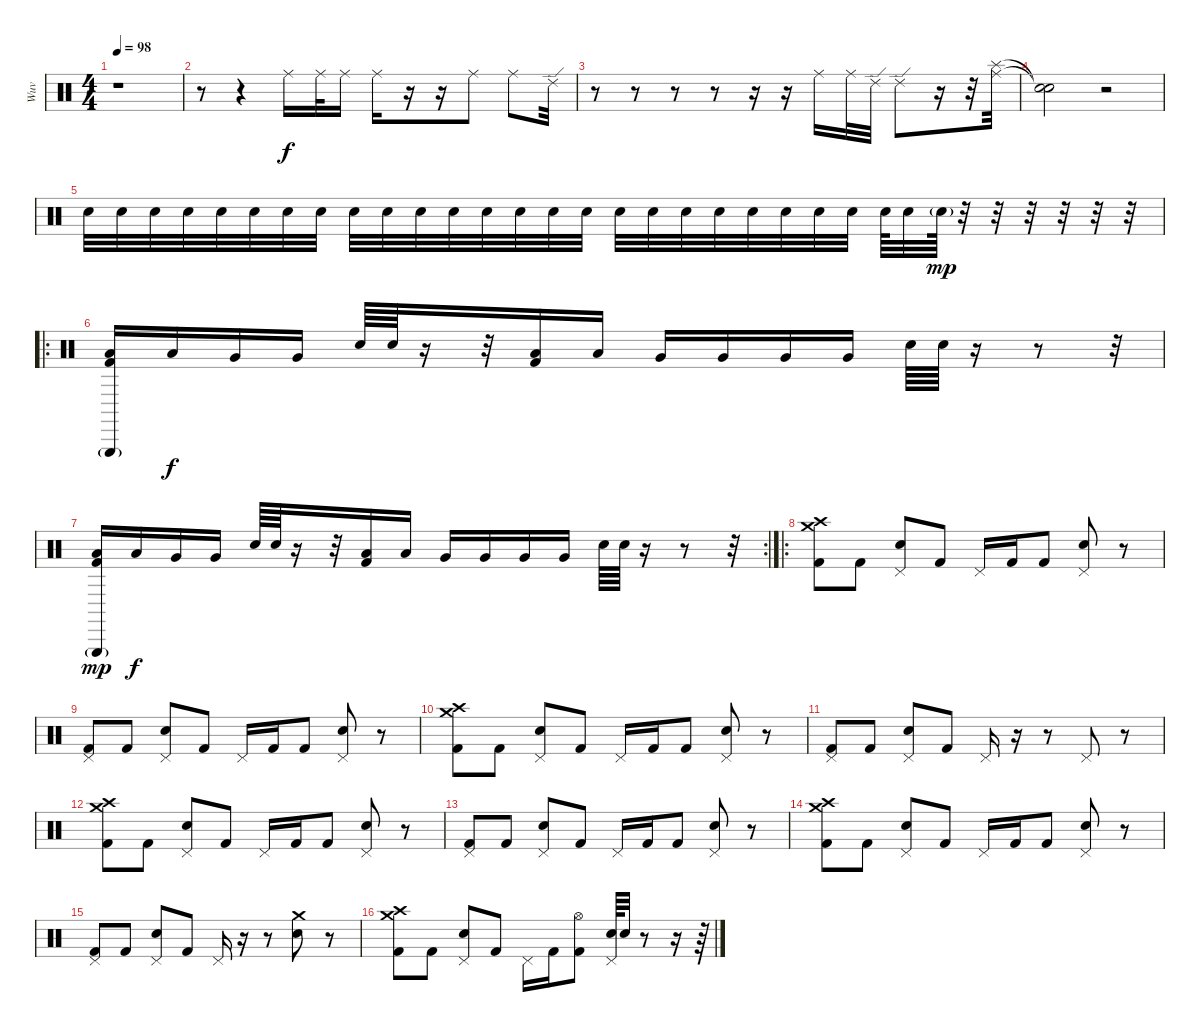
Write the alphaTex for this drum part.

\track ("Wuv" "Wuv") {instrument percussion}
\staff {score}
\articulation defaults
\ts (4 4)
\tempo 98
\clef neutral
\ks c
r.1{dy f} |
r.8{volume 5} r.4 "Ride (middle)".16 "Ride (middle)".32 "Ride (middle)".16 "Ride (middle)".16 r.16 r.16 "Ride (middle)".8 "Ride (middle)".8 "Ride (edge) 2".32 |
r.8 r.8 r.8 r.8 r.16 r.16 "Ride (middle)".16 "Ride (middle)".32 "Ride (edge) 2".32 "Ride (edge) 2".8 r.16 r.32 ("Ride (middle)" "Splash (hit)").32 |
("Snare (hit)"{t} "Snare (hit)"{t}).2 r.2{volume 2} |
"Snare (hit) 2".32{volume 8} "Snare (hit) 2".32 "Snare (hit) 2".32 "Snare (hit) 2".32 "Snare (hit) 2".32 "Snare (hit) 2".32 "Snare (hit) 2".32 "Snare (hit) 2".32 "Snare (hit) 2".32 "Snare (hit) 2".32 "Snare (hit) 2".32 "Snare (hit) 2".32 "Snare (hit) 2".32 "Snare (hit) 2".32 "Snare (hit) 2".32 "Snare (hit) 2".32 "Snare (hit) 2".32 "Snare (hit) 2".32 "Snare (hit) 2".32 "Snare (hit) 2".32 "Snare (hit) 2".32 "Snare (hit) 2".32 "Snare (hit) 2".32 "Snare (hit) 2".32 "Electric Snare (hit)".64{volume 10} "Electric Snare (hit)".32 "Electric Snare (hit)"{g}.64{dy mp} r.32 r.32 r.32 r.32 r.32 r.32 |
\ro
("Low Tom (hit)" "Triangle (hit)"{g} "Kick (hit) 2").16 "Low Tom (hit)".16{dy f} "Very Low Tom (hit)".16 "Very Low Tom (hit)".16 "Electric Snare (hit)".64 "Electric Snare (hit)".64 r.16 r.32 ("Low Tom (hit)" "Kick (hit) 2").16 "Low Tom (hit)".16 "Very Low Tom (hit)".16 "Very Low Tom (hit)".16 "Very Low Tom (hit)".16 "Very Low Tom (hit)".16 "Electric Snare (hit)".64 "Electric Snare (hit)".64 r.16 r.8 r.32 |
\rc 2
("Low Tom (hit)" "Triangle (hit)"{g} "Kick (hit) 2").16{dy mp} "Low Tom (hit)".16{dy f} "Very Low Tom (hit)".16 "Very Low Tom (hit)".16 "Electric Snare (hit)".64 "Electric Snare (hit)".64 r.16 r.32 ("Low Tom (hit)" "Kick (hit) 2").16 "Low Tom (hit)".16 "Very Low Tom (hit)".16 "Very Low Tom (hit)".16 "Very Low Tom (hit)".16 "Very Low Tom (hit)".16 "Electric Snare (hit)".64 "Electric Snare (hit)".64 r.16 r.8 r.32 |
\ro
("Crash high (hit)" "Crash medium (hit)" "Kick (hit) 2").8{volume 10} "Kick (hit) 2".8 ("Pedal Hi-Hat (hit)" "Electric Snare (hit)").8 "Kick (hit) 2".8 "Pedal Hi-Hat (hit)".16 "Kick (hit) 2".16 "Kick (hit) 2".8 ("Pedal Hi-Hat (hit)" "Electric Snare (hit)").8 r.8 |
("Pedal Hi-Hat (hit)" "Kick (hit) 2").8 "Kick (hit) 2".8 ("Pedal Hi-Hat (hit)" "Electric Snare (hit)").8 "Kick (hit) 2".8 "Pedal Hi-Hat (hit)".16 "Kick (hit) 2".16 "Kick (hit) 2".8 ("Pedal Hi-Hat (hit)" "Electric Snare (hit)").8 r.8 |
("Crash high (hit)" "Crash medium (hit)" "Kick (hit) 2").8 "Kick (hit) 2".8 ("Pedal Hi-Hat (hit)" "Electric Snare (hit)").8 "Kick (hit) 2".8 "Pedal Hi-Hat (hit)".16 "Kick (hit) 2".16 "Kick (hit) 2".8 ("Pedal Hi-Hat (hit)" "Electric Snare (hit)").8 r.8 |
("Pedal Hi-Hat (hit)" "Kick (hit) 2").8 "Kick (hit) 2".8 ("Pedal Hi-Hat (hit)" "Electric Snare (hit)").8 "Kick (hit) 2".8 "Pedal Hi-Hat (hit)".16 r.16 r.8 "Pedal Hi-Hat (hit)".8 r.8 |
("Crash high (hit)" "Crash medium (hit)" "Kick (hit) 2").8 "Kick (hit) 2".8 ("Pedal Hi-Hat (hit)" "Electric Snare (hit)").8 "Kick (hit) 2".8 "Pedal Hi-Hat (hit)".16 "Kick (hit) 2".16 "Kick (hit) 2".8 ("Pedal Hi-Hat (hit)" "Electric Snare (hit)").8 r.8 |
("Pedal Hi-Hat (hit)" "Kick (hit) 2").8 "Kick (hit) 2".8 ("Pedal Hi-Hat (hit)" "Electric Snare (hit)").8 "Kick (hit) 2".8 "Pedal Hi-Hat (hit)".16 "Kick (hit) 2".16 "Kick (hit) 2".8 ("Pedal Hi-Hat (hit)" "Electric Snare (hit)").8 r.8 |
("Crash high (hit)" "Crash medium (hit)" "Kick (hit) 2").8 "Kick (hit) 2".8 ("Pedal Hi-Hat (hit)" "Electric Snare (hit)").8 "Kick (hit) 2".8 "Pedal Hi-Hat (hit)".16 "Kick (hit) 2".16 "Kick (hit) 2".8 ("Pedal Hi-Hat (hit)" "Electric Snare (hit)").8 r.8 |
("Pedal Hi-Hat (hit)" "Kick (hit) 2").8 "Kick (hit) 2".8 ("Pedal Hi-Hat (hit)" "Electric Snare (hit)").8 "Kick (hit) 2".8 "Pedal Hi-Hat (hit)".16 r.16 r.8 ("Crash medium (hit)" "Electric Snare (hit)").8 r.8 |
("Crash high (hit)" "Crash medium (hit)" "Kick (hit) 2").8 "Kick (hit) 2".8 ("Pedal Hi-Hat (hit)" "Electric Snare (hit)").8 "Kick (hit) 2".8 "Pedal Hi-Hat (hit)".16 "Kick (hit) 2".16 ("Hi-Hat (open)" "Kick (hit) 2").8 ("Pedal Hi-Hat (hit)" "Electric Snare (hit)").64 "Electric Snare (hit)".32 r.8 r.16 r.64
